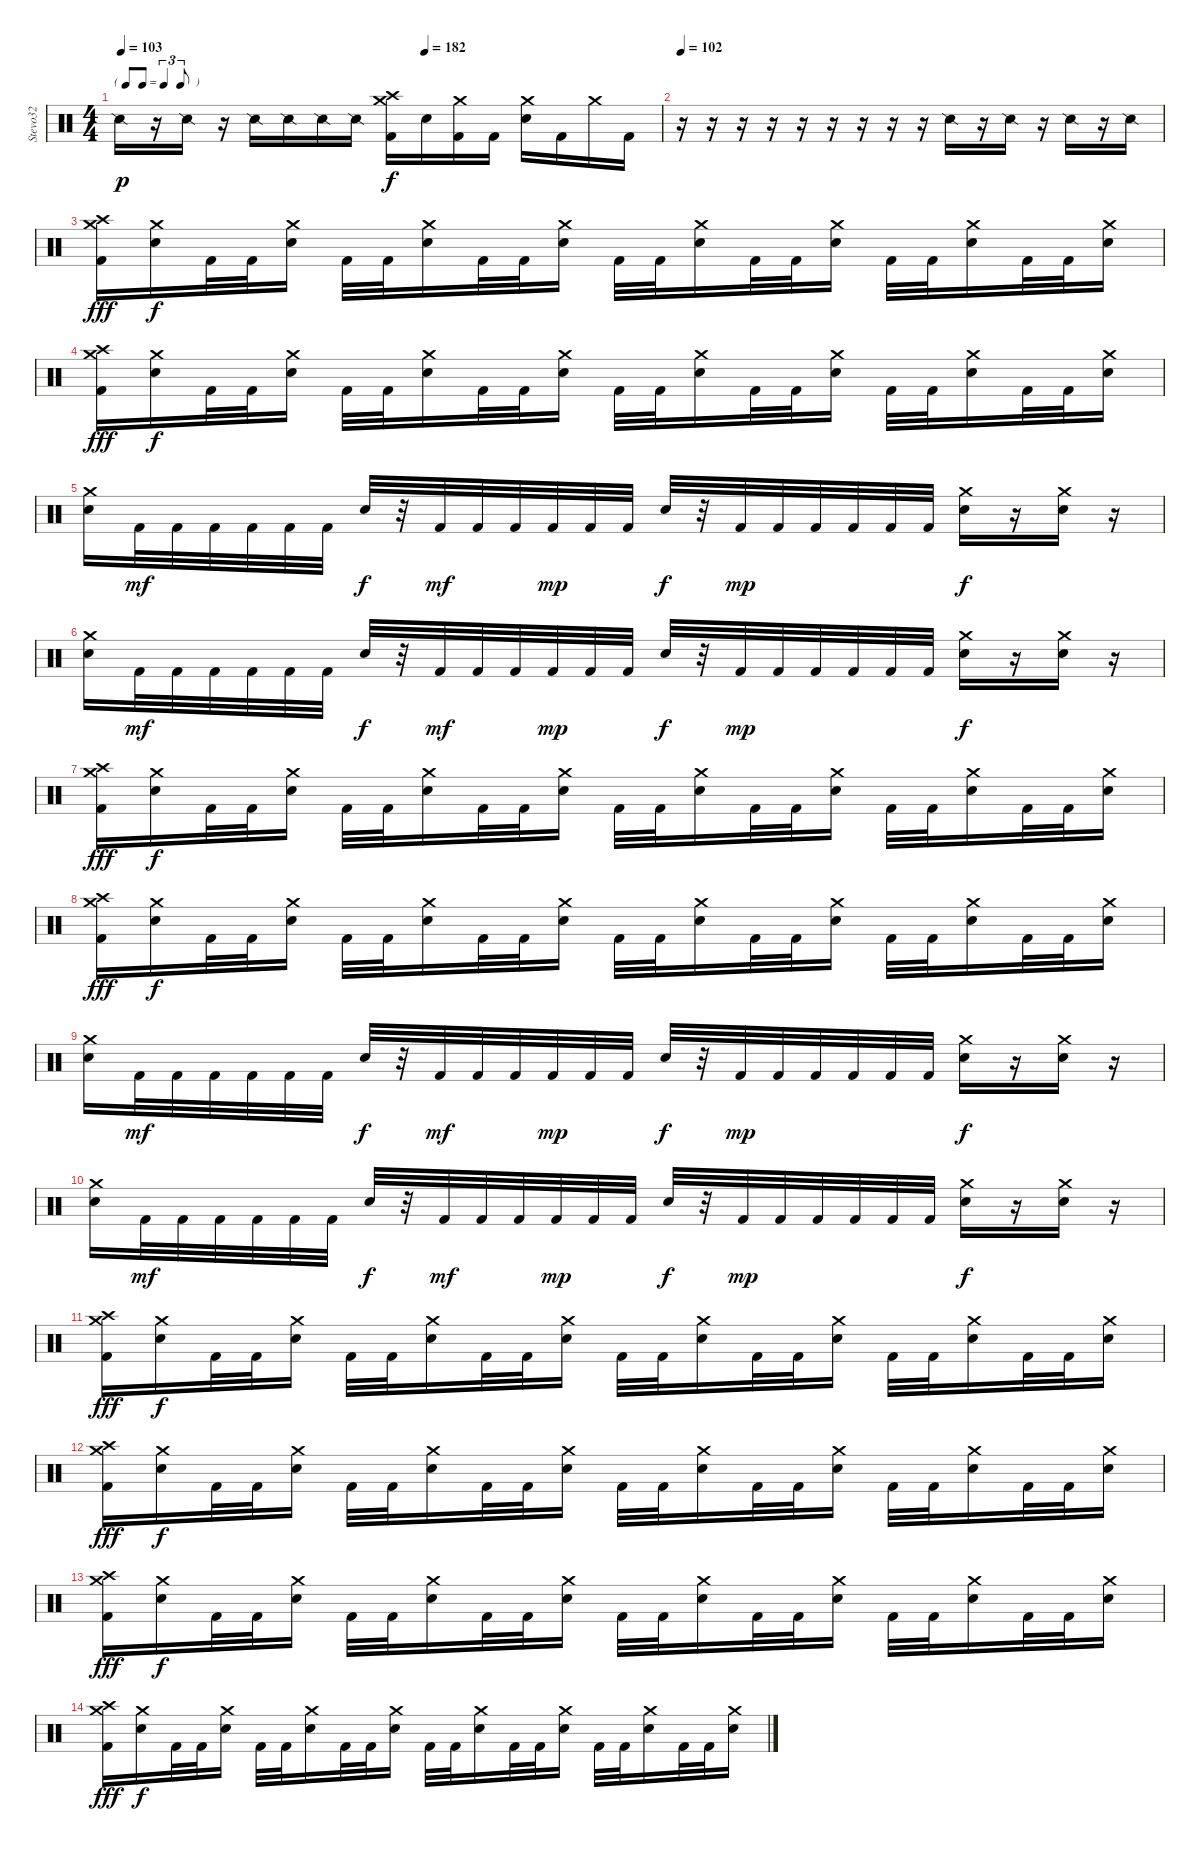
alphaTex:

\track ("Stevo32" "Stevo32") {instrument percussion}
\staff {score}
\articulation defaults
\ts (4 4)
\tf triplet8th
\tempo 103
\tempo (182 0.5625)
\tempo 103
\clef neutral
\ks c "Snare (side stick) 2".16{dy p}
r.16 "Snare (side stick) 2".16 r.16 "Snare (side stick) 2".16 "Snare (side stick) 2".16 "Snare (side stick) 2".16 "Snare (side stick) 2".16 ("Crash medium (hit)" "Crash high (hit)" "Kick (hit) 2").16{dy f} "Electric Snare (hit)".16 ("Crash medium (hit)" "Kick (hit) 2").16 "Kick (hit) 2".16 ("Crash medium (hit)" "Electric Snare (hit)").16 "Kick (hit) 2".16 "Crash medium (hit)".16 "Kick (hit) 2".16 |
\tempo 102
r.16 r.16 r.16 r.16 r.16 r.16 r.16 r.16 r.16 "Snare (side stick) 2".16 r.16 "Snare (side stick) 2".16 r.16 "Snare (side stick) 2".16 r.16 "Snare (side stick) 2".16 |
("Crash high (hit)" "Crash medium (hit)" "Kick (hit) 2").16{dy fff} ("Crash medium (hit)" "Electric Snare (hit)").16{dy f} "Kick (hit) 2".32 "Kick (hit) 2".32 ("Crash medium (hit)" "Electric Snare (hit)").16 "Kick (hit) 2".32 "Kick (hit) 2".32 ("Crash medium (hit)" "Electric Snare (hit)").16 "Kick (hit) 2".32 "Kick (hit) 2".32 ("Crash medium (hit)" "Electric Snare (hit)").16 "Kick (hit) 2".32 "Kick (hit) 2".32 ("Crash medium (hit)" "Electric Snare (hit)").16 "Kick (hit) 2".32 "Kick (hit) 2".32 ("Crash medium (hit)" "Electric Snare (hit)").16 "Kick (hit) 2".32 "Kick (hit) 2".32 ("Crash medium (hit)" "Electric Snare (hit)").16 "Kick (hit) 2".32 "Kick (hit) 2".32 ("Crash medium (hit)" "Electric Snare (hit)").16 |
("Crash high (hit)" "Crash medium (hit)" "Kick (hit) 2").16{dy fff} ("Crash medium (hit)" "Electric Snare (hit)").16{dy f} "Kick (hit) 2".32 "Kick (hit) 2".32 ("Crash medium (hit)" "Electric Snare (hit)").16 "Kick (hit) 2".32 "Kick (hit) 2".32 ("Crash medium (hit)" "Electric Snare (hit)").16 "Kick (hit) 2".32 "Kick (hit) 2".32 ("Crash medium (hit)" "Electric Snare (hit)").16 "Kick (hit) 2".32 "Kick (hit) 2".32 ("Crash medium (hit)" "Electric Snare (hit)").16 "Kick (hit) 2".32 "Kick (hit) 2".32 ("Crash medium (hit)" "Electric Snare (hit)").16 "Kick (hit) 2".32 "Kick (hit) 2".32 ("Crash medium (hit)" "Electric Snare (hit)").16 "Kick (hit) 2".32 "Kick (hit) 2".32 ("Crash medium (hit)" "Electric Snare (hit)").16 |
("Crash medium (hit)" "Electric Snare (hit)").16 "Kick (hit) 2".32{dy mf} "Kick (hit) 2".32 "Kick (hit) 2".32 "Kick (hit) 2".32 "Kick (hit) 2".32 "Kick (hit) 2".32 "Electric Snare (hit)".32{dy f} r.32 "Kick (hit) 2".32{dy mf} "Kick (hit) 2".32 "Kick (hit) 2".32 "Kick (hit) 2".32{dy mp} "Kick (hit) 2".32 "Kick (hit) 2".32 "Electric Snare (hit)".32{dy f} r.32 "Kick (hit) 2".32{dy mp} "Kick (hit) 2".32 "Kick (hit) 2".32 "Kick (hit) 2".32 "Kick (hit) 2".32 "Kick (hit) 2".32 ("Crash medium (hit)" "Electric Snare (hit)").16{dy f} r.16 ("Crash medium (hit)" "Electric Snare (hit)").16 r.16 |
("Crash medium (hit)" "Electric Snare (hit)").16 "Kick (hit) 2".32{dy mf} "Kick (hit) 2".32 "Kick (hit) 2".32 "Kick (hit) 2".32 "Kick (hit) 2".32 "Kick (hit) 2".32 "Electric Snare (hit)".32{dy f} r.32 "Kick (hit) 2".32{dy mf} "Kick (hit) 2".32 "Kick (hit) 2".32 "Kick (hit) 2".32{dy mp} "Kick (hit) 2".32 "Kick (hit) 2".32 "Electric Snare (hit)".32{dy f} r.32 "Kick (hit) 2".32{dy mp} "Kick (hit) 2".32 "Kick (hit) 2".32 "Kick (hit) 2".32 "Kick (hit) 2".32 "Kick (hit) 2".32 ("Crash medium (hit)" "Electric Snare (hit)").16{dy f} r.16 ("Crash medium (hit)" "Electric Snare (hit)").16 r.16 |
("Crash high (hit)" "Crash medium (hit)" "Kick (hit) 2").16{dy fff} ("Crash medium (hit)" "Electric Snare (hit)").16{dy f} "Kick (hit) 2".32 "Kick (hit) 2".32 ("Crash medium (hit)" "Electric Snare (hit)").16 "Kick (hit) 2".32 "Kick (hit) 2".32 ("Crash medium (hit)" "Electric Snare (hit)").16 "Kick (hit) 2".32 "Kick (hit) 2".32 ("Crash medium (hit)" "Electric Snare (hit)").16 "Kick (hit) 2".32 "Kick (hit) 2".32 ("Crash medium (hit)" "Electric Snare (hit)").16 "Kick (hit) 2".32 "Kick (hit) 2".32 ("Crash medium (hit)" "Electric Snare (hit)").16 "Kick (hit) 2".32 "Kick (hit) 2".32 ("Crash medium (hit)" "Electric Snare (hit)").16 "Kick (hit) 2".32 "Kick (hit) 2".32 ("Crash medium (hit)" "Electric Snare (hit)").16 |
("Crash high (hit)" "Crash medium (hit)" "Kick (hit) 2").16{dy fff} ("Crash medium (hit)" "Electric Snare (hit)").16{dy f} "Kick (hit) 2".32 "Kick (hit) 2".32 ("Crash medium (hit)" "Electric Snare (hit)").16 "Kick (hit) 2".32 "Kick (hit) 2".32 ("Crash medium (hit)" "Electric Snare (hit)").16 "Kick (hit) 2".32 "Kick (hit) 2".32 ("Crash medium (hit)" "Electric Snare (hit)").16 "Kick (hit) 2".32 "Kick (hit) 2".32 ("Crash medium (hit)" "Electric Snare (hit)").16 "Kick (hit) 2".32 "Kick (hit) 2".32 ("Crash medium (hit)" "Electric Snare (hit)").16 "Kick (hit) 2".32 "Kick (hit) 2".32 ("Crash medium (hit)" "Electric Snare (hit)").16 "Kick (hit) 2".32 "Kick (hit) 2".32 ("Crash medium (hit)" "Electric Snare (hit)").16 |
("Crash medium (hit)" "Electric Snare (hit)").16 "Kick (hit) 2".32{dy mf} "Kick (hit) 2".32 "Kick (hit) 2".32 "Kick (hit) 2".32 "Kick (hit) 2".32 "Kick (hit) 2".32 "Electric Snare (hit)".32{dy f} r.32 "Kick (hit) 2".32{dy mf} "Kick (hit) 2".32 "Kick (hit) 2".32 "Kick (hit) 2".32{dy mp} "Kick (hit) 2".32 "Kick (hit) 2".32 "Electric Snare (hit)".32{dy f} r.32 "Kick (hit) 2".32{dy mp} "Kick (hit) 2".32 "Kick (hit) 2".32 "Kick (hit) 2".32 "Kick (hit) 2".32 "Kick (hit) 2".32 ("Crash medium (hit)" "Electric Snare (hit)").16{dy f} r.16 ("Crash medium (hit)" "Electric Snare (hit)").16 r.16 |
("Crash medium (hit)" "Electric Snare (hit)").16 "Kick (hit) 2".32{dy mf} "Kick (hit) 2".32 "Kick (hit) 2".32 "Kick (hit) 2".32 "Kick (hit) 2".32 "Kick (hit) 2".32 "Electric Snare (hit)".32{dy f} r.32 "Kick (hit) 2".32{dy mf} "Kick (hit) 2".32 "Kick (hit) 2".32 "Kick (hit) 2".32{dy mp} "Kick (hit) 2".32 "Kick (hit) 2".32 "Electric Snare (hit)".32{dy f} r.32 "Kick (hit) 2".32{dy mp} "Kick (hit) 2".32 "Kick (hit) 2".32 "Kick (hit) 2".32 "Kick (hit) 2".32 "Kick (hit) 2".32 ("Crash medium (hit)" "Electric Snare (hit)").16{dy f} r.16 ("Crash medium (hit)" "Electric Snare (hit)").16 r.16 |
("Crash high (hit)" "Crash medium (hit)" "Kick (hit) 2").16{dy fff} ("Crash medium (hit)" "Electric Snare (hit)").16{dy f} "Kick (hit) 2".32 "Kick (hit) 2".32 ("Crash medium (hit)" "Electric Snare (hit)").16 "Kick (hit) 2".32 "Kick (hit) 2".32 ("Crash medium (hit)" "Electric Snare (hit)").16 "Kick (hit) 2".32 "Kick (hit) 2".32 ("Crash medium (hit)" "Electric Snare (hit)").16 "Kick (hit) 2".32 "Kick (hit) 2".32 ("Crash medium (hit)" "Electric Snare (hit)").16 "Kick (hit) 2".32 "Kick (hit) 2".32 ("Crash medium (hit)" "Electric Snare (hit)").16 "Kick (hit) 2".32 "Kick (hit) 2".32 ("Crash medium (hit)" "Electric Snare (hit)").16 "Kick (hit) 2".32 "Kick (hit) 2".32 ("Crash medium (hit)" "Electric Snare (hit)").16 |
("Crash high (hit)" "Crash medium (hit)" "Kick (hit) 2").16{dy fff} ("Crash medium (hit)" "Electric Snare (hit)").16{dy f} "Kick (hit) 2".32 "Kick (hit) 2".32 ("Crash medium (hit)" "Electric Snare (hit)").16 "Kick (hit) 2".32 "Kick (hit) 2".32 ("Crash medium (hit)" "Electric Snare (hit)").16 "Kick (hit) 2".32 "Kick (hit) 2".32 ("Crash medium (hit)" "Electric Snare (hit)").16 "Kick (hit) 2".32 "Kick (hit) 2".32 ("Crash medium (hit)" "Electric Snare (hit)").16 "Kick (hit) 2".32 "Kick (hit) 2".32 ("Crash medium (hit)" "Electric Snare (hit)").16 "Kick (hit) 2".32 "Kick (hit) 2".32 ("Crash medium (hit)" "Electric Snare (hit)").16 "Kick (hit) 2".32 "Kick (hit) 2".32 ("Crash medium (hit)" "Electric Snare (hit)").16 |
("Crash high (hit)" "Crash medium (hit)" "Kick (hit) 2").16{dy fff} ("Crash medium (hit)" "Electric Snare (hit)").16{dy f} "Kick (hit) 2".32 "Kick (hit) 2".32 ("Crash medium (hit)" "Electric Snare (hit)").16 "Kick (hit) 2".32 "Kick (hit) 2".32 ("Crash medium (hit)" "Electric Snare (hit)").16 "Kick (hit) 2".32 "Kick (hit) 2".32 ("Crash medium (hit)" "Electric Snare (hit)").16 "Kick (hit) 2".32 "Kick (hit) 2".32 ("Crash medium (hit)" "Electric Snare (hit)").16 "Kick (hit) 2".32 "Kick (hit) 2".32 ("Crash medium (hit)" "Electric Snare (hit)").16 "Kick (hit) 2".32 "Kick (hit) 2".32 ("Crash medium (hit)" "Electric Snare (hit)").16 "Kick (hit) 2".32 "Kick (hit) 2".32 ("Crash medium (hit)" "Electric Snare (hit)").16 |
("Crash high (hit)" "Crash medium (hit)" "Kick (hit) 2").16{dy fff} ("Crash medium (hit)" "Electric Snare (hit)").16{dy f} "Kick (hit) 2".32 "Kick (hit) 2".32 ("Crash medium (hit)" "Electric Snare (hit)").16 "Kick (hit) 2".32 "Kick (hit) 2".32 ("Crash medium (hit)" "Electric Snare (hit)").16 "Kick (hit) 2".32 "Kick (hit) 2".32 ("Crash medium (hit)" "Electric Snare (hit)").16 "Kick (hit) 2".32 "Kick (hit) 2".32 ("Crash medium (hit)" "Electric Snare (hit)").16 "Kick (hit) 2".32 "Kick (hit) 2".32 ("Crash medium (hit)" "Electric Snare (hit)").16 "Kick (hit) 2".32 "Kick (hit) 2".32 ("Crash medium (hit)" "Electric Snare (hit)").16 "Kick (hit) 2".32 "Kick (hit) 2".32 ("Crash medium (hit)" "Electric Snare (hit)").16
